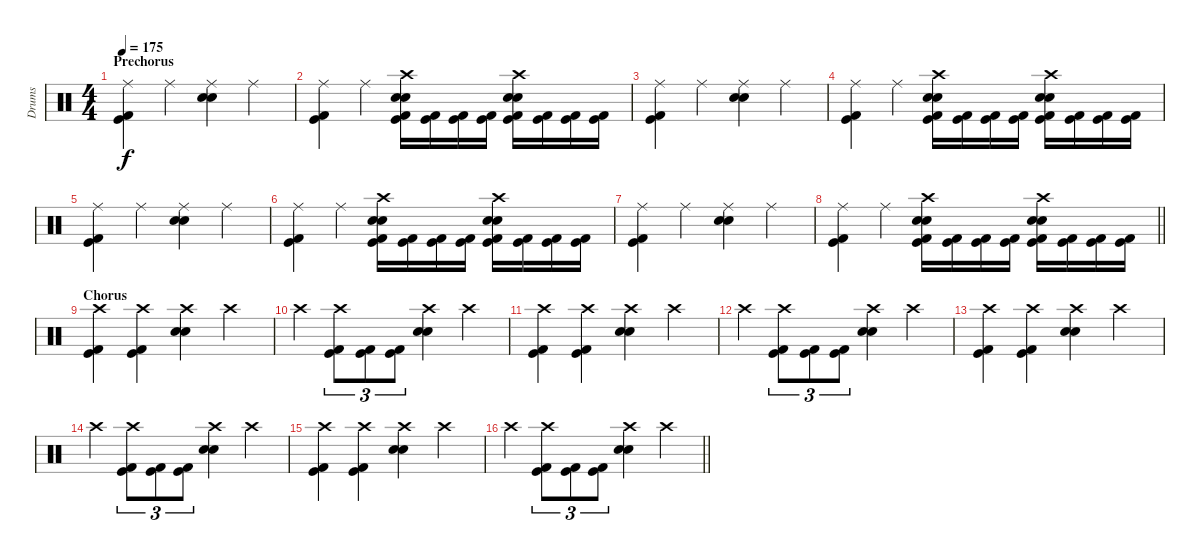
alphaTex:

\track ("Drums" "Drums") {instrument percussion}
\staff {score}
\articulation defaults
\ts (4 4)
\section ("" "Prechorus")
\tempo 175
\clef neutral
\ks c
("Ride (middle)" "Kick (hit) 2" "Kick (hit)").4{dy f} "Ride (middle)".4 ("Ride (middle)" "Electric Snare (hit)" "Electric Snare (hit)").4 "Ride (middle)".4 |
("Ride (middle)" "Kick (hit) 2" "Kick (hit)").4 "Ride (middle)".4 ("Crash high (hit)" "Electric Snare (hit)" "Electric Snare (hit)" "Kick (hit) 2" "Kick (hit)").16 ("Kick (hit) 2" "Kick (hit)").16 ("Kick (hit) 2" "Kick (hit)").16 ("Kick (hit) 2" "Kick (hit)").16 ("Crash high (hit)" "Electric Snare (hit)" "Electric Snare (hit)" "Kick (hit) 2" "Kick (hit)").16 ("Kick (hit) 2" "Kick (hit)").16 ("Kick (hit) 2" "Kick (hit)").16 ("Kick (hit) 2" "Kick (hit)").16 |
("Ride (middle)" "Kick (hit) 2" "Kick (hit)").4 "Ride (middle)".4 ("Ride (middle)" "Electric Snare (hit)" "Electric Snare (hit)").4 "Ride (middle)".4 |
("Ride (middle)" "Kick (hit) 2" "Kick (hit)").4 "Ride (middle)".4 ("Crash high (hit)" "Electric Snare (hit)" "Electric Snare (hit)" "Kick (hit) 2" "Kick (hit)").16 ("Kick (hit) 2" "Kick (hit)").16 ("Kick (hit) 2" "Kick (hit)").16 ("Kick (hit) 2" "Kick (hit)").16 ("Crash high (hit)" "Electric Snare (hit)" "Electric Snare (hit)" "Kick (hit) 2" "Kick (hit)").16 ("Kick (hit) 2" "Kick (hit)").16 ("Kick (hit) 2" "Kick (hit)").16 ("Kick (hit) 2" "Kick (hit)").16 |
("Ride (middle)" "Kick (hit) 2" "Kick (hit)").4 "Ride (middle)".4 ("Ride (middle)" "Electric Snare (hit)" "Electric Snare (hit)").4 "Ride (middle)".4 |
("Ride (middle)" "Kick (hit) 2" "Kick (hit)").4 "Ride (middle)".4 ("Crash high (hit)" "Electric Snare (hit)" "Electric Snare (hit)" "Kick (hit) 2" "Kick (hit)").16 ("Kick (hit) 2" "Kick (hit)").16 ("Kick (hit) 2" "Kick (hit)").16 ("Kick (hit) 2" "Kick (hit)").16 ("Crash high (hit)" "Electric Snare (hit)" "Electric Snare (hit)" "Kick (hit) 2" "Kick (hit)").16 ("Kick (hit) 2" "Kick (hit)").16 ("Kick (hit) 2" "Kick (hit)").16 ("Kick (hit) 2" "Kick (hit)").16 |
("Ride (middle)" "Kick (hit) 2" "Kick (hit)").4 "Ride (middle)".4 ("Ride (middle)" "Electric Snare (hit)" "Electric Snare (hit)").4 "Ride (middle)".4 |
\barLineRight lightlight
("Ride (middle)" "Kick (hit) 2" "Kick (hit)").4 "Ride (middle)".4 ("Crash high (hit)" "Electric Snare (hit)" "Electric Snare (hit)" "Kick (hit) 2" "Kick (hit)").16 ("Kick (hit) 2" "Kick (hit)").16 ("Kick (hit) 2" "Kick (hit)").16 ("Kick (hit) 2" "Kick (hit)").16 ("Crash high (hit)" "Electric Snare (hit)" "Electric Snare (hit)" "Kick (hit) 2" "Kick (hit)").16 ("Kick (hit) 2" "Kick (hit)").16 ("Kick (hit) 2" "Kick (hit)").16 ("Kick (hit) 2" "Kick (hit)").16 |
\section ("" "Chorus")
("Crash high (hit)" "Kick (hit) 2" "Kick (hit)").4 ("Crash high (hit)" "Kick (hit) 2" "Kick (hit)").4 ("Crash high (hit)" "Electric Snare (hit)" "Electric Snare (hit)").4 "Crash high (hit)".4 |
"Crash high (hit)".4 ("Crash high (hit)" "Kick (hit) 2" "Kick (hit)").8{tu (3 2)} ("Kick (hit) 2" "Kick (hit)").8{tu (3 2)} ("Kick (hit) 2" "Kick (hit)").8{tu (3 2)} ("Crash high (hit)" "Electric Snare (hit)" "Electric Snare (hit)").4 "Crash high (hit)".4 |
("Crash high (hit)" "Kick (hit) 2" "Kick (hit)").4 ("Crash high (hit)" "Kick (hit) 2" "Kick (hit)").4 ("Crash high (hit)" "Electric Snare (hit)" "Electric Snare (hit)").4 "Crash high (hit)".4 |
"Crash high (hit)".4 ("Crash high (hit)" "Kick (hit) 2" "Kick (hit)").8{tu (3 2)} ("Kick (hit) 2" "Kick (hit)").8{tu (3 2)} ("Kick (hit) 2" "Kick (hit)").8{tu (3 2)} ("Crash high (hit)" "Electric Snare (hit)" "Electric Snare (hit)").4 "Crash high (hit)".4 |
("Crash high (hit)" "Kick (hit) 2" "Kick (hit)").4 ("Crash high (hit)" "Kick (hit) 2" "Kick (hit)").4 ("Crash high (hit)" "Electric Snare (hit)" "Electric Snare (hit)").4 "Crash high (hit)".4 |
"Crash high (hit)".4 ("Crash high (hit)" "Kick (hit) 2" "Kick (hit)").8{tu (3 2)} ("Kick (hit) 2" "Kick (hit)").8{tu (3 2)} ("Kick (hit) 2" "Kick (hit)").8{tu (3 2)} ("Crash high (hit)" "Electric Snare (hit)" "Electric Snare (hit)").4 "Crash high (hit)".4 |
("Crash high (hit)" "Kick (hit) 2" "Kick (hit)").4 ("Crash high (hit)" "Kick (hit) 2" "Kick (hit)").4 ("Crash high (hit)" "Electric Snare (hit)" "Electric Snare (hit)").4 "Crash high (hit)".4 |
\barLineRight lightlight "Crash high (hit)".4
("Crash high (hit)" "Kick (hit) 2" "Kick (hit)").8{tu (3 2)} ("Kick (hit) 2" "Kick (hit)").8{tu (3 2)} ("Kick (hit) 2" "Kick (hit)").8{tu (3 2)} ("Crash high (hit)" "Electric Snare (hit)" "Electric Snare (hit)").4 "Crash high (hit)".4
